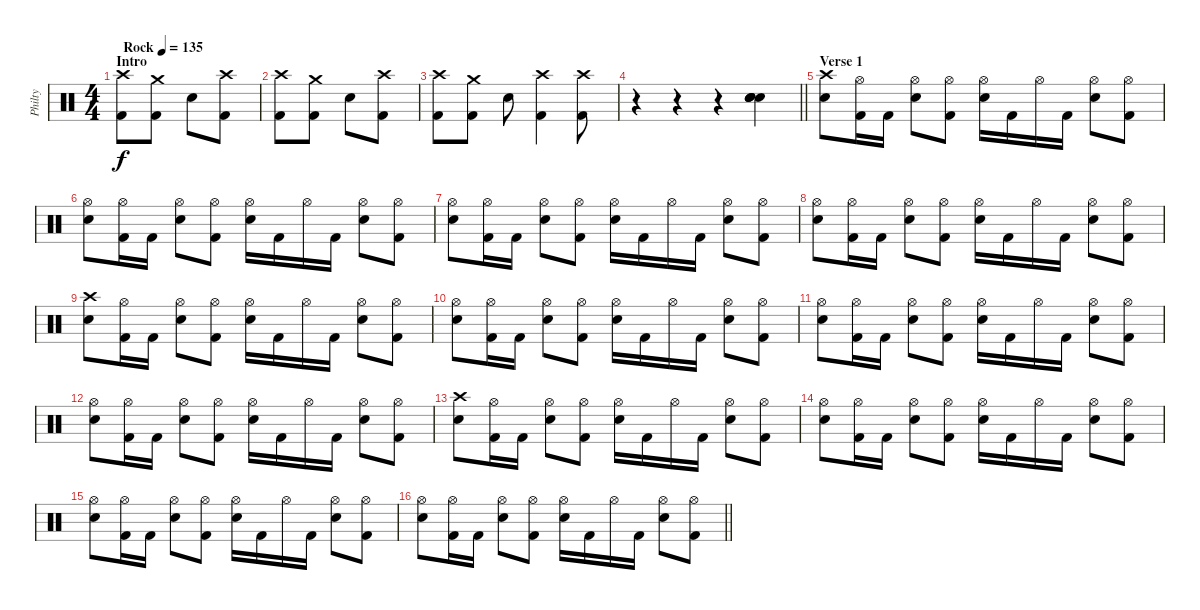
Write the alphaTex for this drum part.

\track ("Philty" "Philty") {instrument percussion}
\staff {score}
\articulation defaults
\ts (4 4)
\section ("" "Intro")
\tempo (135 "Rock")
\clef neutral
\ks c
("Crash high (hit)" "Kick (hit) 2").8{dy f} ("Crash medium (hit)" "Kick (hit) 2").8 "Electric Snare (hit)".8 ("Crash high (hit)" "Kick (hit) 2").8 |
("Crash high (hit)" "Kick (hit) 2").8 ("Crash medium (hit)" "Kick (hit) 2").8 "Electric Snare (hit)".8 ("Crash high (hit)" "Kick (hit) 2").8 |
("Crash high (hit)" "Kick (hit) 2").8 ("Crash medium (hit)" "Kick (hit) 2").8 "Electric Snare (hit)".8 ("Crash high (hit)" "Kick (hit) 2").4 ("Crash high (hit)" "Kick (hit) 2").8 |
\barLineRight lightlight
r.4 r.4 r.4 ("Electric Snare (hit)" "Electric Snare (hit)" "Electric Snare (hit)" "Snare (hit) 2").4 |
\section ("" "Verse 1")
("Crash high (hit)" "Electric Snare (hit)").8 ("Hi-Hat (open)" "Kick (hit) 2").16 "Kick (hit) 2".16 ("Hi-Hat (open)" "Electric Snare (hit)").8 ("Hi-Hat (open)" "Kick (hit) 2").8 ("Hi-Hat (open)" "Electric Snare (hit)").16 "Kick (hit) 2".16 "Hi-Hat (open)".16 "Kick (hit) 2".16 ("Hi-Hat (open)" "Electric Snare (hit)").8 ("Hi-Hat (open)" "Kick (hit) 2").8 |
("Hi-Hat (open)" "Electric Snare (hit)").8 ("Hi-Hat (open)" "Kick (hit) 2").16 "Kick (hit) 2".16 ("Hi-Hat (open)" "Electric Snare (hit)").8 ("Hi-Hat (open)" "Kick (hit) 2").8 ("Hi-Hat (open)" "Electric Snare (hit)").16 "Kick (hit) 2".16 "Hi-Hat (open)".16 "Kick (hit) 2".16 ("Hi-Hat (open)" "Electric Snare (hit)").8 ("Hi-Hat (open)" "Kick (hit) 2").8 |
("Hi-Hat (open)" "Electric Snare (hit)").8 ("Hi-Hat (open)" "Kick (hit) 2").16 "Kick (hit) 2".16 ("Hi-Hat (open)" "Electric Snare (hit)").8 ("Hi-Hat (open)" "Kick (hit) 2").8 ("Hi-Hat (open)" "Electric Snare (hit)").16 "Kick (hit) 2".16 "Hi-Hat (open)".16 "Kick (hit) 2".16 ("Hi-Hat (open)" "Electric Snare (hit)").8 ("Hi-Hat (open)" "Kick (hit) 2").8 |
("Hi-Hat (open)" "Electric Snare (hit)").8 ("Hi-Hat (open)" "Kick (hit) 2").16 "Kick (hit) 2".16 ("Hi-Hat (open)" "Electric Snare (hit)").8 ("Hi-Hat (open)" "Kick (hit) 2").8 ("Hi-Hat (open)" "Electric Snare (hit)").16 "Kick (hit) 2".16 "Hi-Hat (open)".16 "Kick (hit) 2".16 ("Hi-Hat (open)" "Electric Snare (hit)").8 ("Hi-Hat (open)" "Kick (hit) 2").8 |
("Crash high (hit)" "Electric Snare (hit)").8 ("Hi-Hat (open)" "Kick (hit) 2").16 "Kick (hit) 2".16 ("Hi-Hat (open)" "Electric Snare (hit)").8 ("Hi-Hat (open)" "Kick (hit) 2").8 ("Hi-Hat (open)" "Electric Snare (hit)").16 "Kick (hit) 2".16 "Hi-Hat (open)".16 "Kick (hit) 2".16 ("Hi-Hat (open)" "Electric Snare (hit)").8 ("Hi-Hat (open)" "Kick (hit) 2").8 |
("Hi-Hat (open)" "Electric Snare (hit)").8 ("Hi-Hat (open)" "Kick (hit) 2").16 "Kick (hit) 2".16 ("Hi-Hat (open)" "Electric Snare (hit)").8 ("Hi-Hat (open)" "Kick (hit) 2").8 ("Hi-Hat (open)" "Electric Snare (hit)").16 "Kick (hit) 2".16 "Hi-Hat (open)".16 "Kick (hit) 2".16 ("Hi-Hat (open)" "Electric Snare (hit)").8 ("Hi-Hat (open)" "Kick (hit) 2").8 |
("Hi-Hat (open)" "Electric Snare (hit)").8 ("Hi-Hat (open)" "Kick (hit) 2").16 "Kick (hit) 2".16 ("Hi-Hat (open)" "Electric Snare (hit)").8 ("Hi-Hat (open)" "Kick (hit) 2").8 ("Hi-Hat (open)" "Electric Snare (hit)").16 "Kick (hit) 2".16 "Hi-Hat (open)".16 "Kick (hit) 2".16 ("Hi-Hat (open)" "Electric Snare (hit)").8 ("Hi-Hat (open)" "Kick (hit) 2").8 |
("Hi-Hat (open)" "Electric Snare (hit)").8 ("Hi-Hat (open)" "Kick (hit) 2").16 "Kick (hit) 2".16 ("Hi-Hat (open)" "Electric Snare (hit)").8 ("Hi-Hat (open)" "Kick (hit) 2").8 ("Hi-Hat (open)" "Electric Snare (hit)").16 "Kick (hit) 2".16 "Hi-Hat (open)".16 "Kick (hit) 2".16 ("Hi-Hat (open)" "Electric Snare (hit)").8 ("Hi-Hat (open)" "Kick (hit) 2").8 |
("Crash high (hit)" "Electric Snare (hit)").8 ("Hi-Hat (open)" "Kick (hit) 2").16 "Kick (hit) 2".16 ("Hi-Hat (open)" "Electric Snare (hit)").8 ("Hi-Hat (open)" "Kick (hit) 2").8 ("Hi-Hat (open)" "Electric Snare (hit)").16 "Kick (hit) 2".16 "Hi-Hat (open)".16 "Kick (hit) 2".16 ("Hi-Hat (open)" "Electric Snare (hit)").8 ("Hi-Hat (open)" "Kick (hit) 2").8 |
("Hi-Hat (open)" "Electric Snare (hit)").8 ("Hi-Hat (open)" "Kick (hit) 2").16 "Kick (hit) 2".16 ("Hi-Hat (open)" "Electric Snare (hit)").8 ("Hi-Hat (open)" "Kick (hit) 2").8 ("Hi-Hat (open)" "Electric Snare (hit)").16 "Kick (hit) 2".16 "Hi-Hat (open)".16 "Kick (hit) 2".16 ("Hi-Hat (open)" "Electric Snare (hit)").8 ("Hi-Hat (open)" "Kick (hit) 2").8 |
("Hi-Hat (open)" "Electric Snare (hit)").8 ("Hi-Hat (open)" "Kick (hit) 2").16 "Kick (hit) 2".16 ("Hi-Hat (open)" "Electric Snare (hit)").8 ("Hi-Hat (open)" "Kick (hit) 2").8 ("Hi-Hat (open)" "Electric Snare (hit)").16 "Kick (hit) 2".16 "Hi-Hat (open)".16 "Kick (hit) 2".16 ("Hi-Hat (open)" "Electric Snare (hit)").8 ("Hi-Hat (open)" "Kick (hit) 2").8 |
\barLineRight lightlight
("Hi-Hat (open)" "Electric Snare (hit)").8 ("Hi-Hat (open)" "Kick (hit) 2").16 "Kick (hit) 2".16 ("Hi-Hat (open)" "Electric Snare (hit)").8 ("Hi-Hat (open)" "Kick (hit) 2").8 ("Hi-Hat (open)" "Electric Snare (hit)").16 "Kick (hit) 2".16 "Hi-Hat (open)".16 "Kick (hit) 2".16 ("Hi-Hat (open)" "Electric Snare (hit)").8 ("Hi-Hat (open)" "Kick (hit) 2").8
